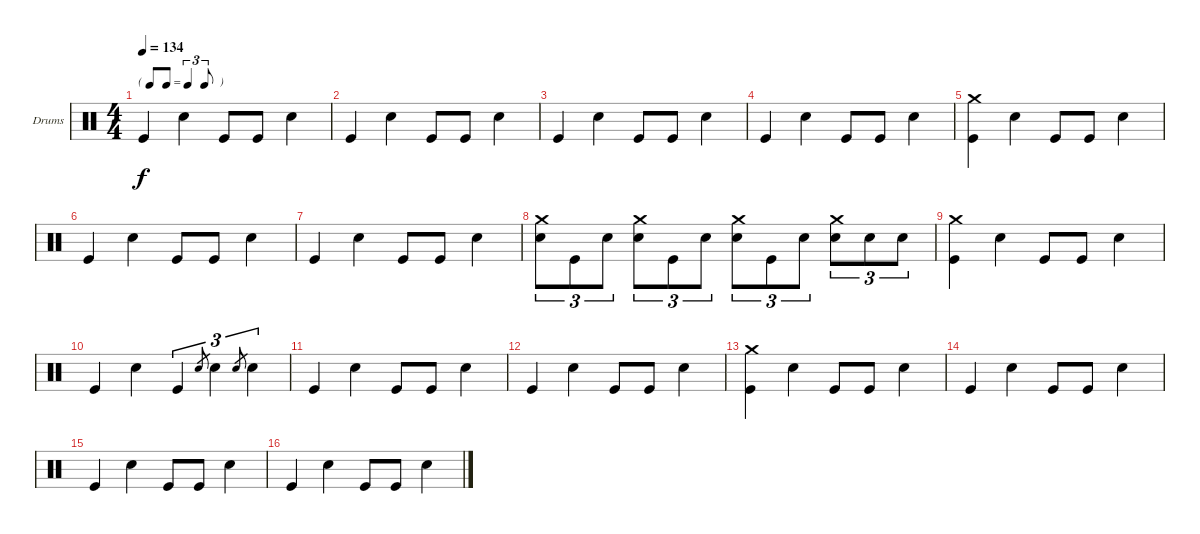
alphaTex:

\bracketExtendMode groupsimilarinstruments
\firstSystemTrackNameOrientation horizontal
\otherSystemsTrackNameOrientation horizontal
\track ("Drumkit" "Drums") {instrument percussion}
\staff {score}
\articulation defaults
\ts (4 4)
\tf triplet8th
\tempo 134
\clef neutral
\ks c "Kick (hit)".4{dy f} "Snare (hit) 2".4 "Kick (hit)".8 "Kick (hit)".8 "Snare (hit) 2".4
|
"Kick (hit)".4 "Snare (hit) 2".4 "Kick (hit)".8 "Kick (hit)".8 "Snare (hit) 2".4 |
"Kick (hit)".4 "Snare (hit) 2".4 "Kick (hit)".8 "Kick (hit)".8 "Snare (hit) 2".4 |
"Kick (hit)".4 "Snare (hit) 2".4 "Kick (hit)".8 "Kick (hit)".8 "Snare (hit) 2".4 |
("Kick (hit)" "Crash medium (hit)").4 "Snare (hit) 2".4 "Kick (hit)".8 "Kick (hit)".8 "Snare (hit) 2".4 |
"Kick (hit)".4 "Snare (hit) 2".4 "Kick (hit)".8 "Kick (hit)".8 "Snare (hit) 2".4 |
"Kick (hit)".4 "Snare (hit) 2".4 "Kick (hit)".8 "Kick (hit)".8 "Snare (hit) 2".4 |
("Snare (hit) 2" "Crash medium (hit)").8{tu (3 2)} "Kick (hit)".8{tu (3 2)} "Snare (hit) 2".8{tu (3 2)} ("Snare (hit) 2" "Crash medium (hit)").8{tu (3 2)} "Kick (hit)".8{tu (3 2)} "Snare (hit) 2".8{tu (3 2)} ("Snare (hit) 2" "Crash medium (hit)").8{tu (3 2)} "Kick (hit)".8{tu (3 2)} "Snare (hit) 2".8{tu (3 2)} ("Snare (hit) 2" "Crash medium (hit)").8{tu (3 2)} "Snare (hit) 2".8{tu (3 2)} "Snare (hit) 2".8{tu (3 2)} |
("Kick (hit)" "Crash medium (hit)").4 "Snare (hit) 2".4 "Kick (hit)".8 "Kick (hit)".8 "Snare (hit) 2".4 |
"Kick (hit)".4 "Snare (hit) 2".4 "Kick (hit)".4{tu (3 2)} "Snare (hit) 2".8{tu (3 2) gr} "Snare (hit) 2".4{tu (3 2)} "Snare (hit) 2".8{tu (3 2) gr} "Snare (hit) 2".4{tu (3 2)} |
"Kick (hit)".4 "Snare (hit) 2".4 "Kick (hit)".8 "Kick (hit)".8 "Snare (hit) 2".4 |
"Kick (hit)".4 "Snare (hit) 2".4 "Kick (hit)".8 "Kick (hit)".8 "Snare (hit) 2".4 |
("Kick (hit)" "Crash medium (hit)").4 "Snare (hit) 2".4 "Kick (hit)".8 "Kick (hit)".8 "Snare (hit) 2".4 |
"Kick (hit)".4 "Snare (hit) 2".4 "Kick (hit)".8 "Kick (hit)".8 "Snare (hit) 2".4 |
"Kick (hit)".4 "Snare (hit) 2".4 "Kick (hit)".8 "Kick (hit)".8 "Snare (hit) 2".4 |
"Kick (hit)".4 "Snare (hit) 2".4 "Kick (hit)".8 "Kick (hit)".8 "Snare (hit) 2".4
